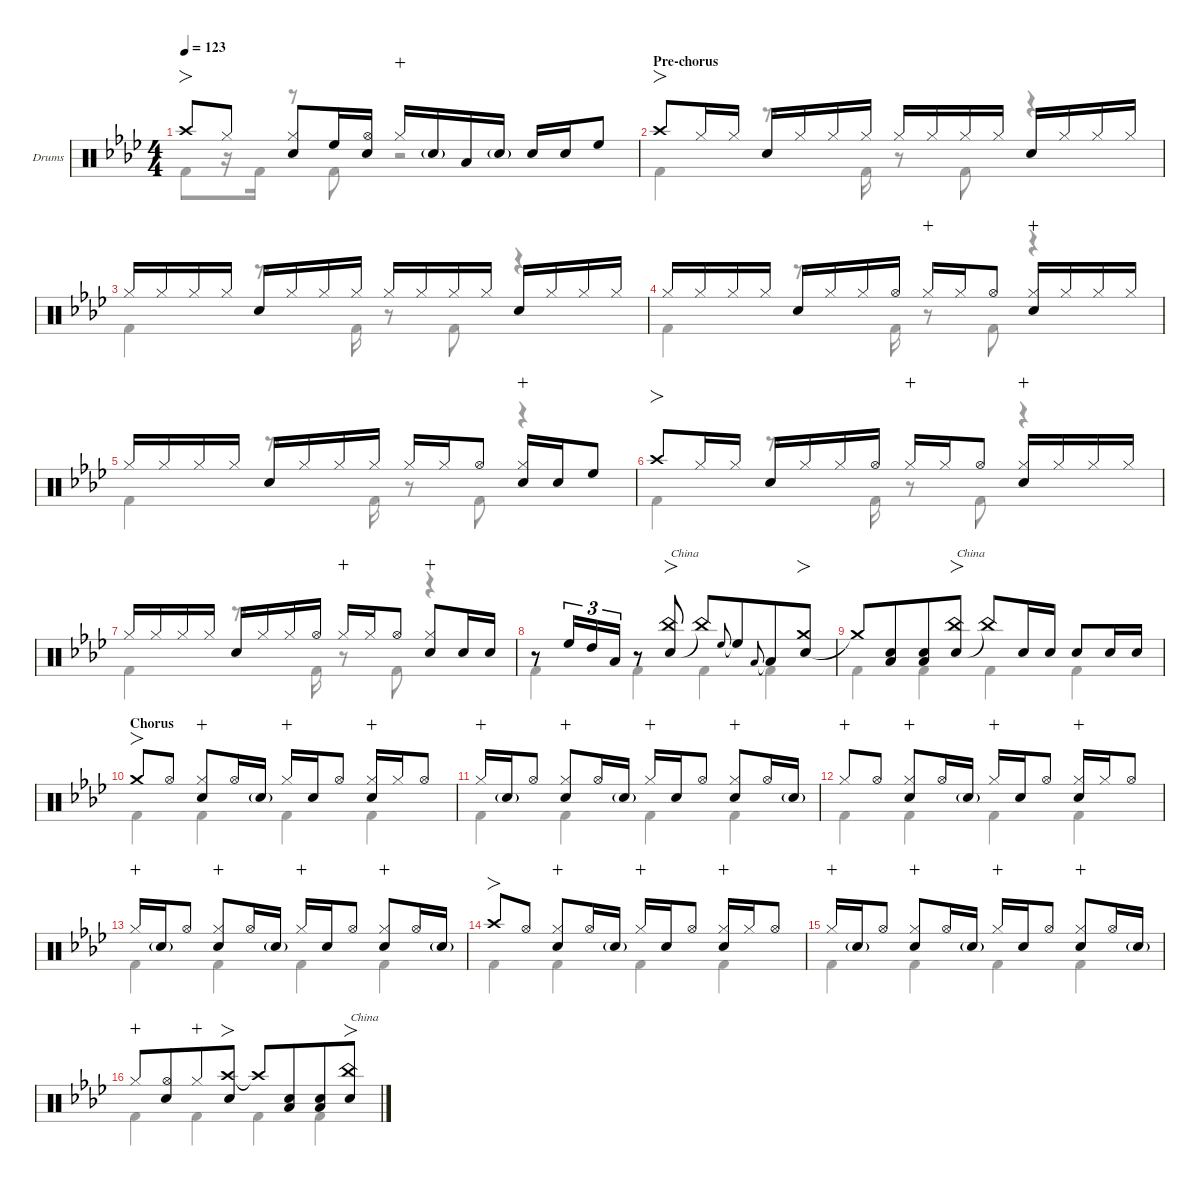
\defaultSystemsLayout 4
\hideDynamics
\bracketExtendMode nobrackets
\firstSystemTrackNameOrientation horizontal
\track ("Drums" "Drums") {defaultSystemsLayout 4 instrument percussion}
\staff {score}
\articulation defaults
\voice
\ts (4 4)
\tempo 123
\clef neutral
\ks ab "Crash high (hit)"{acc forcenatural}.8{fo dy f beam Up} "Hi-Hat (closed)"{acc forcenatural}.8{beam Up}
("Hi-Hat (closed)"{acc forcenatural} "Snare (hit) 2"{acc forcenatural}).8{beam Up} "High Floor Tom (hit)"{acc forcenatural}.16{beam Up} ("Snare (hit) 2"{acc forcenatural} "Hi-Hat (open)"{acc forcenatural}).16{beam Up} "Hi-Hat (closed)"{acc forcenatural}.16{dy mp wahc beam Up} "Snare (hit) 2"{g acc forcenatural}.16{dy mf beam Up} "Low Tom (hit)"{acc forcenatural}.16{dy f beam Up} "Snare (hit) 2"{g acc forcenatural}.16{dy mf beam Up} "Snare (hit) 2"{acc forcenatural}.16{dy f beam Up} "Snare (hit) 2"{acc forcenatural}.16{dy mf beam Up} "High Floor Tom (hit)"{acc forcenatural}.8{dy f beam Up} |
\section ("" "Pre-chorus")
\scale
0.265513 "Crash high (hit)"{acc forcenatural}.8{fo beam Up} "Hi-Hat (closed)"{acc forcenatural}.16{beam Up} "Hi-Hat (closed)"{acc forcenatural}.16{beam Up} "Snare (hit) 2"{acc forcenatural}.16{beam Up} "Hi-Hat (closed)"{acc forcenatural}.16{dy mp beam Up} "Hi-Hat (closed)"{acc forcenatural}.16{dy f beam Up} "Hi-Hat (closed)"{acc forcenatural}.16{dy mp beam Up} "Hi-Hat (closed)"{acc forcenatural}.16{dy f beam Up} "Hi-Hat (closed)"{acc forcenatural}.16{dy mp beam Up} "Hi-Hat (closed)"{acc forcenatural}.16{dy f beam Up} "Hi-Hat (closed)"{acc forcenatural}.16{dy mp beam Up} "Snare (hit) 2"{acc forcenatural}.16{dy f beam Up} "Hi-Hat (closed)"{acc forcenatural}.16{dy mp beam Up} "Hi-Hat (closed)"{acc forcenatural}.16{dy f beam Up} "Hi-Hat (closed)"{acc forcenatural}.16{dy mp beam Up} |
\scale
0.245566 "Hi-Hat (closed)"{acc forcenatural}.16{dy f beam Up} "Hi-Hat (closed)"{acc forcenatural}.16{dy mp beam Up} "Hi-Hat (closed)"{acc forcenatural}.16{dy f beam Up} "Hi-Hat (closed)"{acc forcenatural}.16{dy mp beam Up} "Snare (hit) 2"{acc forcenatural}.16{dy f beam Up} "Hi-Hat (closed)"{acc forcenatural}.16{dy mp beam Up} "Hi-Hat (closed)"{acc forcenatural}.16{dy f beam Up} "Hi-Hat (closed)"{acc forcenatural}.16{dy mp beam Up} "Hi-Hat (closed)"{acc forcenatural}.16{dy f beam Up} "Hi-Hat (closed)"{acc forcenatural}.16{dy mp beam Up} "Hi-Hat (closed)"{acc forcenatural}.16{dy f beam Up} "Hi-Hat (closed)"{acc forcenatural}.16{dy mp beam Up} "Snare (hit) 2"{acc forcenatural}.16{dy f beam Up} "Hi-Hat (closed)"{acc forcenatural}.16{dy mp beam Up} "Hi-Hat (closed)"{acc forcenatural}.16{dy f beam Up} "Hi-Hat (closed)"{acc forcenatural}.16{dy mp beam Up} |
\scale
0.24446 "Hi-Hat (closed)"{acc forcenatural}.16{dy f beam Up} "Hi-Hat (closed)"{acc forcenatural}.16{dy mp beam Up} "Hi-Hat (closed)"{acc forcenatural}.16{dy f beam Up} "Hi-Hat (closed)"{acc forcenatural}.16{dy mp beam Up} "Snare (hit) 2"{acc forcenatural}.16{dy f beam Up} "Hi-Hat (closed)"{acc forcenatural}.16{dy mp beam Up} "Hi-Hat (closed)"{acc forcenatural}.16{dy f beam Up} "Hi-Hat (open)"{acc forcenatural}.16{beam Up} "Hi-Hat (closed)"{acc forcenatural}.16{dy mp wahc beam Up} "Hi-Hat (closed)"{acc forcenatural}.16{beam Up} "Hi-Hat (open)"{acc forcenatural}.8{dy f beam Up} ("Snare (hit) 2"{acc forcenatural} "Hi-Hat (closed)"{acc forcenatural}).16{wahc beam Up} "Hi-Hat (closed)"{acc forcenatural}.16{dy mp beam Up} "Hi-Hat (closed)"{acc forcenatural}.16{dy f beam Up} "Hi-Hat (closed)"{acc forcenatural}.16{dy mp beam Up} |
\scale
0.244461 "Hi-Hat (closed)"{acc forcenatural}.16{dy f beam Up} "Hi-Hat (closed)"{acc forcenatural}.16{dy mp beam Up} "Hi-Hat (closed)"{acc forcenatural}.16{dy f beam Up} "Hi-Hat (closed)"{acc forcenatural}.16{dy mp beam Up} "Snare (hit) 2"{acc forcenatural}.16{dy f beam Up} "Hi-Hat (closed)"{acc forcenatural}.16{dy mp beam Up} "Hi-Hat (closed)"{acc forcenatural}.16{dy f beam Up} "Hi-Hat (closed)"{acc forcenatural}.16{dy mp beam Up} "Hi-Hat (closed)"{acc forcenatural}.16{dy f beam Up} "Hi-Hat (closed)"{acc forcenatural}.16{dy mp beam Up} "Hi-Hat (open)"{acc forcenatural}.8{dy f beam Up} ("Hi-Hat (closed)"{acc forcenatural} "Snare (hit) 2"{acc forcenatural}).16{wahc beam Up} "Snare (hit) 2"{acc forcenatural}.16{dy mf beam Up} "High Floor Tom (hit)"{acc forcenatural}.8{dy f beam Up} |
\scale
0.265513 "Crash high (hit)"{acc forcenatural}.8{fo beam Up} "Hi-Hat (closed)"{acc forcenatural}.16{beam Up} "Hi-Hat (closed)"{acc forcenatural}.16{beam Up} "Snare (hit) 2"{acc forcenatural}.16{beam Up} "Hi-Hat (closed)"{acc forcenatural}.16{dy mp beam Up} "Hi-Hat (closed)"{acc forcenatural}.16{dy f beam Up} "Hi-Hat (open)"{acc forcenatural}.16{beam Up} "Hi-Hat (closed)"{acc forcenatural}.16{dy mp wahc beam Up} "Hi-Hat (closed)"{acc forcenatural}.16{beam Up} "Hi-Hat (open)"{acc forcenatural}.8{dy f beam Up} ("Snare (hit) 2"{acc forcenatural} "Hi-Hat (closed)"{acc forcenatural}).16{wahc beam Up} "Hi-Hat (closed)"{acc forcenatural}.16{dy mp beam Up} "Hi-Hat (closed)"{acc forcenatural}.16{dy f beam Up} "Hi-Hat (closed)"{acc forcenatural}.16{dy mp beam Up} |
\scale
0.245566 "Hi-Hat (closed)"{acc forcenatural}.16{dy f beam Up} "Hi-Hat (closed)"{acc forcenatural}.16{dy mp beam Up} "Hi-Hat (closed)"{acc forcenatural}.16{dy f beam Up} "Hi-Hat (closed)"{acc forcenatural}.16{dy mp beam Up} "Snare (hit) 2"{acc forcenatural}.16{dy f beam Up} "Hi-Hat (closed)"{acc forcenatural}.16{dy mp beam Up} "Hi-Hat (closed)"{acc forcenatural}.16{dy f beam Up} "Hi-Hat (open)"{acc forcenatural}.16{beam Up} "Hi-Hat (closed)"{acc forcenatural}.16{dy mp wahc beam Up} "Hi-Hat (closed)"{acc forcenatural}.16{beam Up} "Hi-Hat (open)"{acc forcenatural}.8{dy f beam Up} ("Snare (hit) 2"{acc forcenatural} "Hi-Hat (closed)"{acc forcenatural}).8{wahc beam Up} "Snare (hit) 2"{acc forcenatural}.16{beam Up} "Snare (hit) 2"{acc forcenatural}.16{dy mf beam Up} |
\scale
0.24446 r.8{beam Up} "High Floor Tom (hit)"{acc forcenatural}.16{tu (3 2) beam Up} "High Tom (hit)"{acc forcenatural}.16{tu (3 2) beam Up} "Low Tom (hit)"{acc forcenatural}.16{tu (3 2) beam Up} r.8{beam Up} ("Snare (hit) 2"{acc forcenatural} "China (hit)"{acc forcenatural}).8{fo txt "China" dy f beam Up} "China (hit)"{t acc forcenatural}.8{beam Up} "High Floor Tom (hit)"{acc forcenatural}.8{gr onbeat beam Up beam merge} "High Floor Tom (hit)"{t acc forcenatural}.8{beam Up beam merge} "Low Tom (hit)"{acc forcenatural}.8{gr onbeat beam Up beam merge} "Low Tom (hit)"{t acc forcenatural}.8{beam Up beam merge} ("Snare (hit) 2"{acc forcenatural} "Crash medium (hit)"{acc forcenatural}).8{fo beam Up} |
\scale
0.244461 "Crash medium (hit)"{t acc forcenatural}.8{beam Up beam merge} ("Snare (hit) 2"{acc forcenatural} "Low Tom (hit)"{acc forcenatural}).8{beam Up beam merge} ("Snare (hit) 2"{acc forcenatural} "Low Tom (hit)"{acc forcenatural}).8{beam Up beam merge} ("Snare (hit) 2"{acc forcenatural} "China (hit)"{acc forcenatural}).8{fo txt "China" beam Up} "China (hit)"{t acc forcenatural}.8{beam Up} "Snare (hit) 2"{acc forcenatural}.16{beam Up} "Snare (hit) 2"{acc forcenatural}.16{dy mf beam Up} "Snare (hit) 2"{acc forcenatural}.8{dy f beam Up} "Snare (hit) 2"{acc forcenatural}.16{beam Up} "Snare (hit) 2"{acc forcenatural}.16{dy mf beam Up} |
\section ("" "Chorus")
\scale
0.265513 "Crash medium (hit)"{acc forcenatural}.8{fo dy f beam Up} "Hi-Hat (open)"{acc forcenatural}.8{beam Up} ("Snare (hit) 2"{acc forcenatural} "Hi-Hat (closed)"{acc forcenatural}).8{wahc beam Up beam merge} "Hi-Hat (open)"{acc forcenatural}.16{beam Up} "Snare (hit) 2"{g acc forcenatural}.16{dy mf beam Up} "Hi-Hat (closed)"{acc forcenatural}.16{dy mp wahc beam Up} "Snare (hit) 2"{acc forcenatural}.16{dy f beam Up} "Hi-Hat (open)"{acc forcenatural}.8{beam Up} ("Snare (hit) 2"{acc forcenatural} "Hi-Hat (closed)"{acc forcenatural}).16{wahc beam Up} "Hi-Hat (closed)"{acc forcenatural}.16{beam Up} "Hi-Hat (open)"{acc forcenatural}.8{beam Up} |
\scale
0.245566 "Hi-Hat (closed)"{acc forcenatural}.16{dy mp wahc beam Up} "Snare (hit) 2"{g acc forcenatural}.16{dy mf beam Up} "Hi-Hat (open)"{acc forcenatural}.8{dy f beam Up} ("Snare (hit) 2"{acc forcenatural} "Hi-Hat (closed)"{acc forcenatural}).8{wahc beam Up beam merge} "Hi-Hat (open)"{acc forcenatural}.16{beam Up} "Snare (hit) 2"{g acc forcenatural}.16{dy mf beam Up} "Hi-Hat (closed)"{acc forcenatural}.16{dy mp wahc beam Up} "Snare (hit) 2"{acc forcenatural}.16{dy f beam Up} "Hi-Hat (open)"{acc forcenatural}.8{beam Up} ("Snare (hit) 2"{acc forcenatural} "Hi-Hat (closed)"{acc forcenatural}).8{wahc beam Up beam merge} "Hi-Hat (open)"{acc forcenatural}.16{beam Up} "Snare (hit) 2"{g acc forcenatural}.16{dy mf beam Up} |
\scale
0.24446 "Hi-Hat (closed)"{acc forcenatural}.8{dy mp wahc beam Up beam merge} "Hi-Hat (open)"{acc forcenatural}.8{dy f beam Up beam split} ("Snare (hit) 2"{acc forcenatural} "Hi-Hat (closed)"{acc forcenatural}).8{wahc beam Up beam merge} "Hi-Hat (open)"{acc forcenatural}.16{beam Up} "Snare (hit) 2"{g acc forcenatural}.16{dy mf beam Up} "Hi-Hat (closed)"{acc forcenatural}.16{dy mp wahc beam Up} "Snare (hit) 2"{acc forcenatural}.16{dy f beam Up} "Hi-Hat (open)"{acc forcenatural}.8{beam Up} ("Snare (hit) 2"{acc forcenatural} "Hi-Hat (closed)"{acc forcenatural}).16{wahc beam Up} "Hi-Hat (closed)"{acc forcenatural}.16{beam Up} "Hi-Hat (open)"{acc forcenatural}.8{beam Up} |
\scale
0.244461 "Hi-Hat (closed)"{acc forcenatural}.16{dy mp wahc beam Up} "Snare (hit) 2"{g acc forcenatural}.16{dy mf beam Up} "Hi-Hat (open)"{acc forcenatural}.8{dy f beam Up} ("Snare (hit) 2"{acc forcenatural} "Hi-Hat (closed)"{acc forcenatural}).8{wahc beam Up beam merge} "Hi-Hat (open)"{acc forcenatural}.16{beam Up} "Snare (hit) 2"{g acc forcenatural}.16{dy mf beam Up} "Hi-Hat (closed)"{acc forcenatural}.16{dy mp wahc beam Up} "Snare (hit) 2"{acc forcenatural}.16{dy f beam Up} "Hi-Hat (open)"{acc forcenatural}.8{beam Up} ("Snare (hit) 2"{acc forcenatural} "Hi-Hat (closed)"{acc forcenatural}).8{wahc beam Up beam merge} "Hi-Hat (open)"{acc forcenatural}.16{beam Up} "Snare (hit) 2"{g acc forcenatural}.16{dy mf beam Up} |
\scale
0.265513 "Crash high (hit)"{acc forcenatural}.8{fo dy f beam Up} "Hi-Hat (open)"{acc forcenatural}.8{beam Up} ("Snare (hit) 2"{acc forcenatural} "Hi-Hat (closed)"{acc forcenatural}).8{wahc beam Up beam merge} "Hi-Hat (open)"{acc forcenatural}.16{beam Up} "Snare (hit) 2"{g acc forcenatural}.16{dy mf beam Up} "Hi-Hat (closed)"{acc forcenatural}.16{dy mp wahc beam Up} "Snare (hit) 2"{acc forcenatural}.16{dy f beam Up} "Hi-Hat (open)"{acc forcenatural}.8{beam Up} ("Snare (hit) 2"{acc forcenatural} "Hi-Hat (closed)"{acc forcenatural}).16{wahc beam Up} "Hi-Hat (closed)"{acc forcenatural}.16{beam Up} "Hi-Hat (open)"{acc forcenatural}.8{beam Up} |
\scale
0.245566 "Hi-Hat (closed)"{acc forcenatural}.16{dy mp wahc beam Up} "Snare (hit) 2"{g acc forcenatural}.16{dy mf beam Up} "Hi-Hat (open)"{acc forcenatural}.8{dy f beam Up} ("Snare (hit) 2"{acc forcenatural} "Hi-Hat (closed)"{acc forcenatural}).8{wahc beam Up beam merge} "Hi-Hat (open)"{acc forcenatural}.16{beam Up} "Snare (hit) 2"{g acc forcenatural}.16{dy mf beam Up} "Hi-Hat (closed)"{acc forcenatural}.16{dy mp wahc beam Up} "Snare (hit) 2"{acc forcenatural}.16{dy f beam Up} "Hi-Hat (open)"{acc forcenatural}.8{beam Up} ("Snare (hit) 2"{acc forcenatural} "Hi-Hat (closed)"{acc forcenatural}).8{wahc beam Up beam merge} "Hi-Hat (open)"{acc forcenatural}.16{beam Up} "Snare (hit) 2"{g acc forcenatural}.16{dy mf beam Up} |
\scale
0.24446 "Hi-Hat (closed)"{acc forcenatural}.8{dy mp wahc beam Up beam merge} ("Hi-Hat (open)"{acc forcenatural} "Snare (hit) 2"{acc forcenatural}).8{dy f beam Up beam merge} "Hi-Hat (closed)"{acc forcenatural}.8{dy mp wahc beam Up beam merge} ("Crash high (hit)"{acc forcenatural} "Snare (hit) 2"{acc forcenatural}).8{fo dy f beam Up} "Crash high (hit)"{t acc forcenatural}.8{beam Up beam merge} ("Snare (hit) 2"{acc forcenatural} "Low Tom (hit)"{acc forcenatural}).8{beam Up beam merge} ("Low Tom (hit)"{acc forcenatural} "Snare (hit) 2"{acc forcenatural}).8{beam Up beam merge} ("China (hit)"{acc forcenatural} "Snare (hit) 2"{acc forcenatural}).8{fo txt "China" beam Up}
\voice
\clef neutral
\ottava regular
\simile none
\ks ab "Kick (hit) 2"{acc forcenatural}.8{dy f beam Down}
r.16{beam Down} "Kick (hit) 2"{acc forcenatural}.16{beam Down} r.8{beam Down} "Kick (hit) 2"{acc forcenatural}.8{beam Down} r.2{beam Down} |
\scale
0.265513 "Kick (hit) 2"{acc forcenatural}.4{beam Down} r.8{d beam Down} "Kick (hit) 2"{acc forcenatural}.16{beam Down} r.8{beam Down} "Kick (hit) 2"{acc forcenatural}.8{beam Down} r.4{beam Down} |
\scale
0.245566 "Kick (hit) 2"{acc forcenatural}.4{beam Down} r.8{d beam Down} "Kick (hit) 2"{acc forcenatural}.16{beam Down} r.8{beam Down} "Kick (hit) 2"{acc forcenatural}.8{beam Down} r.4{beam Down} |
\scale
0.24446 "Kick (hit) 2"{acc forcenatural}.4{beam Down} r.8{d beam Down} "Kick (hit) 2"{acc forcenatural}.16{beam Down} r.8{beam Down} "Kick (hit) 2"{acc forcenatural}.8{beam Down} r.4{beam Down} |
\scale
0.244461 "Kick (hit) 2"{acc forcenatural}.4{beam Down} r.8{d beam Down} "Kick (hit) 2"{acc forcenatural}.16{beam Down} r.8{beam Down} "Kick (hit) 2"{acc forcenatural}.8{beam Down} r.4{beam Down} |
\scale
0.265513 "Kick (hit) 2"{acc forcenatural}.4{beam Down} r.8{d beam Down} "Kick (hit) 2"{acc forcenatural}.16{beam Down} r.8{beam Down} "Kick (hit) 2"{acc forcenatural}.8{beam Down} r.4{beam Down} |
\scale
0.245566 "Kick (hit) 2"{acc forcenatural}.4{beam Down} r.8{d beam Down} "Kick (hit) 2"{acc forcenatural}.16{beam Down} r.8{beam Down} "Kick (hit) 2"{acc forcenatural}.8{beam Down} r.4{beam Down} |
\scale
0.24446 "Kick (hit) 2"{acc forcenatural}.4{beam Down} "Kick (hit) 2"{acc forcenatural}.4{beam Down} "Kick (hit) 2"{acc forcenatural}.4{beam Down} "Kick (hit) 2"{acc forcenatural}.4{beam Down} |
\scale
0.244461 "Kick (hit) 2"{acc forcenatural}.4{beam Down} "Kick (hit) 2"{acc forcenatural}.4{beam Down} "Kick (hit) 2"{acc forcenatural}.4{beam Down} "Kick (hit) 2"{acc forcenatural}.4{beam Down} |
\scale
0.265513 "Kick (hit) 2"{acc forcenatural}.4{beam Down} "Kick (hit) 2"{acc forcenatural}.4{beam Down} "Kick (hit) 2"{acc forcenatural}.4{beam Down} "Kick (hit) 2"{acc forcenatural}.4{beam Down} |
\scale
0.245566 "Kick (hit) 2"{acc forcenatural}.4{beam Down} "Kick (hit) 2"{acc forcenatural}.4{beam Down} "Kick (hit) 2"{acc forcenatural}.4{beam Down} "Kick (hit) 2"{acc forcenatural}.4{beam Down} |
\scale
0.24446 "Kick (hit) 2"{acc forcenatural}.4{beam Down} "Kick (hit) 2"{acc forcenatural}.4{beam Down} "Kick (hit) 2"{acc forcenatural}.4{beam Down} "Kick (hit) 2"{acc forcenatural}.4{beam Down} |
\scale
0.244461 "Kick (hit) 2"{acc forcenatural}.4{beam Down} "Kick (hit) 2"{acc forcenatural}.4{beam Down} "Kick (hit) 2"{acc forcenatural}.4{beam Down} "Kick (hit) 2"{acc forcenatural}.4{beam Down} |
\scale
0.265513 "Kick (hit) 2"{acc forcenatural}.4{beam Down} "Kick (hit) 2"{acc forcenatural}.4{beam Down} "Kick (hit) 2"{acc forcenatural}.4{beam Down} "Kick (hit) 2"{acc forcenatural}.4{beam Down} |
\scale
0.245566 "Kick (hit) 2"{acc forcenatural}.4{beam Down} "Kick (hit) 2"{acc forcenatural}.4{beam Down} "Kick (hit) 2"{acc forcenatural}.4{beam Down} "Kick (hit) 2"{acc forcenatural}.4{beam Down} |
\scale
0.24446 "Kick (hit) 2"{acc forcenatural}.4{beam Down} "Kick (hit) 2"{acc forcenatural}.4{beam Down} "Kick (hit) 2"{acc forcenatural}.4{beam Down} "Kick (hit) 2"{acc forcenatural}.4{beam Down}
